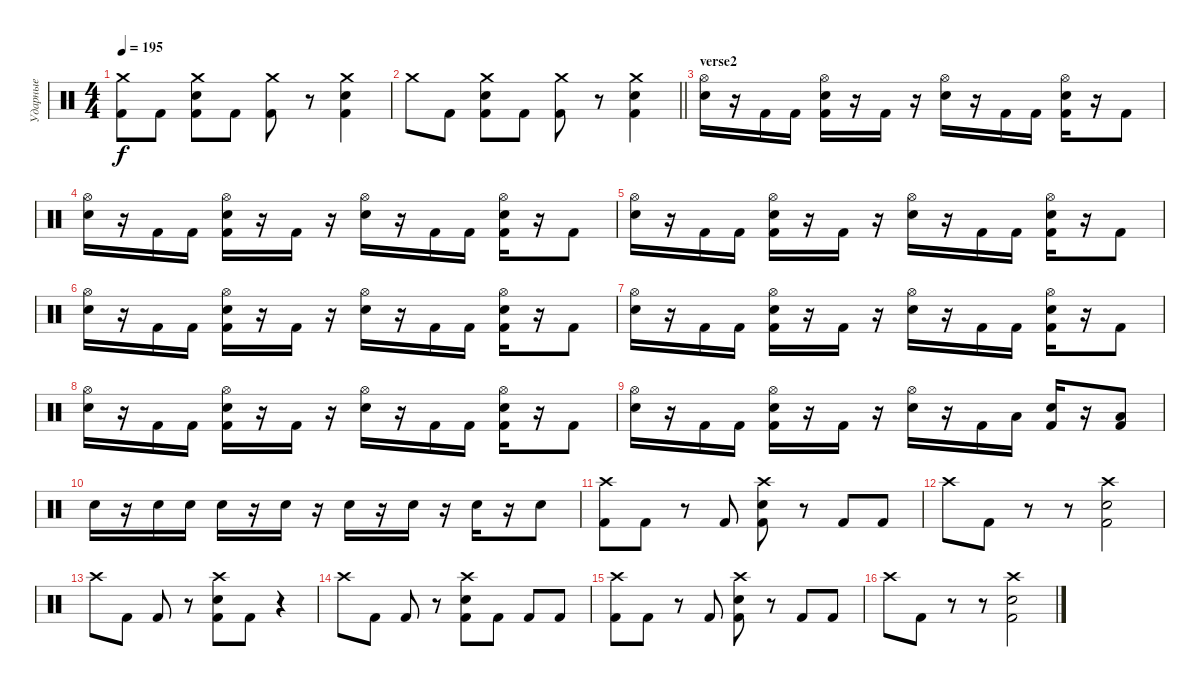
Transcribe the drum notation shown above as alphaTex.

\track ("Ударные" "Ударные") {instrument percussion}
\staff {score}
\articulation defaults
\ts (4 4)
\tempo 195
\clef neutral
\ks c
("Crash medium (hit)" "Kick (hit) 2").8{dy f} "Kick (hit) 2".8 ("Crash medium (hit)" "Electric Snare (hit)" "Kick (hit) 2").8 "Kick (hit) 2".8 ("Crash medium (hit)" "Kick (hit) 2").8 r.8 ("Crash medium (hit)" "Electric Snare (hit)" "Kick (hit) 2").4 |
\barLineRight lightlight "Crash medium (hit)".8 "Kick (hit) 2".8
("Crash medium (hit)" "Electric Snare (hit)" "Kick (hit) 2").8 "Kick (hit) 2".8 ("Crash medium (hit)" "Kick (hit) 2").8 r.8 ("Crash medium (hit)" "Electric Snare (hit)" "Kick (hit) 2").4 |
\section ("" "verse2")
("Hi-Hat (open)" "Electric Snare (hit)").16 r.16 "Kick (hit) 2".16 "Kick (hit) 2".16 ("Hi-Hat (open)" "Electric Snare (hit)" "Kick (hit) 2").16 r.16 "Kick (hit) 2".16 r.16 ("Hi-Hat (open)" "Electric Snare (hit)").16 r.16 "Kick (hit) 2".16 "Kick (hit) 2".16 ("Hi-Hat (open)" "Electric Snare (hit)" "Kick (hit) 2").16 r.16 "Kick (hit) 2".8 |
("Hi-Hat (open)" "Electric Snare (hit)").16 r.16 "Kick (hit) 2".16 "Kick (hit) 2".16 ("Hi-Hat (open)" "Electric Snare (hit)" "Kick (hit) 2").16 r.16 "Kick (hit) 2".16 r.16 ("Hi-Hat (open)" "Electric Snare (hit)").16 r.16 "Kick (hit) 2".16 "Kick (hit) 2".16 ("Hi-Hat (open)" "Electric Snare (hit)" "Kick (hit) 2").16 r.16 "Kick (hit) 2".8 |
("Hi-Hat (open)" "Electric Snare (hit)").16 r.16 "Kick (hit) 2".16 "Kick (hit) 2".16 ("Hi-Hat (open)" "Electric Snare (hit)" "Kick (hit) 2").16 r.16 "Kick (hit) 2".16 r.16 ("Hi-Hat (open)" "Electric Snare (hit)").16 r.16 "Kick (hit) 2".16 "Kick (hit) 2".16 ("Hi-Hat (open)" "Electric Snare (hit)" "Kick (hit) 2").16 r.16 "Kick (hit) 2".8 |
("Hi-Hat (open)" "Electric Snare (hit)").16 r.16 "Kick (hit) 2".16 "Kick (hit) 2".16 ("Hi-Hat (open)" "Electric Snare (hit)" "Kick (hit) 2").16 r.16 "Kick (hit) 2".16 r.16 ("Hi-Hat (open)" "Electric Snare (hit)").16 r.16 "Kick (hit) 2".16 "Kick (hit) 2".16 ("Hi-Hat (open)" "Electric Snare (hit)" "Kick (hit) 2").16 r.16 "Kick (hit) 2".8 |
("Hi-Hat (open)" "Electric Snare (hit)").16 r.16 "Kick (hit) 2".16 "Kick (hit) 2".16 ("Hi-Hat (open)" "Electric Snare (hit)" "Kick (hit) 2").16 r.16 "Kick (hit) 2".16 r.16 ("Hi-Hat (open)" "Electric Snare (hit)").16 r.16 "Kick (hit) 2".16 "Kick (hit) 2".16 ("Hi-Hat (open)" "Electric Snare (hit)" "Kick (hit) 2").16 r.16 "Kick (hit) 2".8 |
("Hi-Hat (open)" "Electric Snare (hit)").16 r.16 "Kick (hit) 2".16 "Kick (hit) 2".16 ("Hi-Hat (open)" "Electric Snare (hit)" "Kick (hit) 2").16 r.16 "Kick (hit) 2".16 r.16 ("Hi-Hat (open)" "Electric Snare (hit)").16 r.16 "Kick (hit) 2".16 "Kick (hit) 2".16 ("Hi-Hat (open)" "Electric Snare (hit)" "Kick (hit) 2").16 r.16 "Kick (hit) 2".8 |
("Hi-Hat (open)" "Electric Snare (hit)").16 r.16 "Kick (hit) 2".16 "Kick (hit) 2".16 ("Hi-Hat (open)" "Electric Snare (hit)" "Kick (hit) 2").16 r.16 "Kick (hit) 2".16 r.16 ("Hi-Hat (open)" "Electric Snare (hit)").16 r.16 "Kick (hit) 2".16 "Low Tom (hit)".16 ("Electric Snare (hit)" "Kick (hit) 2").16 r.16 ("Low Tom (hit)" "Kick (hit) 2").8 |
"Electric Snare (hit)".16 r.16 "Electric Snare (hit)".16 "Electric Snare (hit)".16 "Electric Snare (hit)".16 r.16 "Electric Snare (hit)".16 r.16 "Electric Snare (hit)".16 r.16 "Electric Snare (hit)".16 r.16 "Electric Snare (hit)".16 r.16 "Electric Snare (hit)".8 |
("Crash high (hit)" "Kick (hit) 2").8 "Kick (hit) 2".8 r.8 "Kick (hit) 2".8 ("Crash high (hit)" "Electric Snare (hit)" "Kick (hit) 2").8 r.8 "Kick (hit) 2".8 "Kick (hit) 2".8 |
"Crash high (hit)".8 "Kick (hit) 2".8 r.8 r.8 ("Crash high (hit)" "Electric Snare (hit)" "Kick (hit) 2").2 |
"Crash high (hit)".8 "Kick (hit) 2".8 "Kick (hit) 2".8 r.8 ("Crash high (hit)" "Electric Snare (hit)" "Kick (hit) 2").8 "Kick (hit) 2".8 r.4 |
"Crash high (hit)".8 "Kick (hit) 2".8 "Kick (hit) 2".8 r.8 ("Crash high (hit)" "Electric Snare (hit)" "Kick (hit) 2").8 "Kick (hit) 2".8 "Kick (hit) 2".8 "Kick (hit) 2".8 |
("Crash high (hit)" "Kick (hit) 2").8 "Kick (hit) 2".8 r.8 "Kick (hit) 2".8 ("Crash high (hit)" "Electric Snare (hit)" "Kick (hit) 2").8 r.8 "Kick (hit) 2".8 "Kick (hit) 2".8 |
"Crash high (hit)".8 "Kick (hit) 2".8 r.8 r.8 ("Crash high (hit)" "Electric Snare (hit)" "Kick (hit) 2").2
